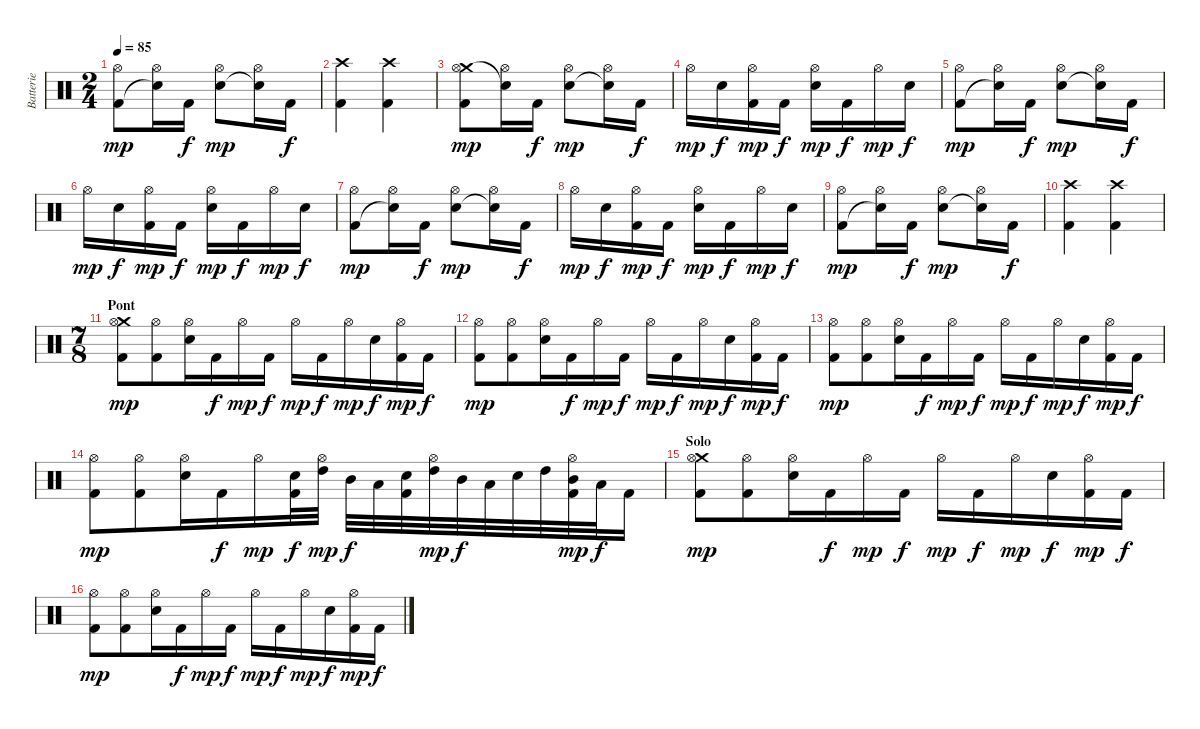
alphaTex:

\track ("Batterie" "Batterie") {instrument percussion}
\staff {score}
\articulation defaults
\ts (2 4)
\tempo 85
\clef neutral
\ks c
("Hi-Hat (open)" "Kick (hit) 2").8{dy mp} ("Hi-Hat (open)" "Snare (hit)"{t}).16 "Kick (hit) 2".16{dy f} ("Electric Snare (hit)" "Hi-Hat (open)").8{dy mp} ("Snare (hit)"{t} "Hi-Hat (open)").16 "Kick (hit) 2".16{dy f} |
("Crash high (hit)" "Kick (hit) 2").4 ("Crash high (hit)" "Kick (hit) 2").4 |
("Crash medium (hit)" "Hi-Hat (open)" "Kick (hit) 2").8{dy mp} ("Hi-Hat (open)" "Snare (hit)"{t}).16 "Kick (hit) 2".16{dy f} ("Electric Snare (hit)" "Hi-Hat (open)").8{dy mp} ("Snare (hit)"{t} "Hi-Hat (open)").16 "Kick (hit) 2".16{dy f} |
"Hi-Hat (open)".16{dy mp} "Electric Snare (hit)".16{dy f} ("Hi-Hat (open)" "Kick (hit) 2").16{dy mp} "Kick (hit) 2".16{dy f} ("Electric Snare (hit)" "Hi-Hat (open)").16{dy mp} "Kick (hit) 2".16{dy f} "Hi-Hat (open)".16{dy mp} "Electric Snare (hit)".16{dy f} |
("Hi-Hat (open)" "Kick (hit) 2").8{dy mp} ("Hi-Hat (open)" "Snare (hit)"{t}).16 "Kick (hit) 2".16{dy f} ("Electric Snare (hit)" "Hi-Hat (open)").8{dy mp} ("Snare (hit)"{t} "Hi-Hat (open)").16 "Kick (hit) 2".16{dy f} |
"Hi-Hat (open)".16{dy mp} "Electric Snare (hit)".16{dy f} ("Hi-Hat (open)" "Kick (hit) 2").16{dy mp} "Kick (hit) 2".16{dy f} ("Electric Snare (hit)" "Hi-Hat (open)").16{dy mp} "Kick (hit) 2".16{dy f} "Hi-Hat (open)".16{dy mp} "Electric Snare (hit)".16{dy f} |
("Hi-Hat (open)" "Kick (hit) 2").8{dy mp} ("Hi-Hat (open)" "Snare (hit)"{t}).16 "Kick (hit) 2".16{dy f} ("Electric Snare (hit)" "Hi-Hat (open)").8{dy mp} ("Snare (hit)"{t} "Hi-Hat (open)").16 "Kick (hit) 2".16{dy f} |
"Hi-Hat (open)".16{dy mp} "Electric Snare (hit)".16{dy f} ("Hi-Hat (open)" "Kick (hit) 2").16{dy mp} "Kick (hit) 2".16{dy f} ("Electric Snare (hit)" "Hi-Hat (open)").16{dy mp} "Kick (hit) 2".16{dy f} "Hi-Hat (open)".16{dy mp} "Electric Snare (hit)".16{dy f} |
("Hi-Hat (open)" "Kick (hit) 2").8{dy mp} ("Hi-Hat (open)" "Snare (hit)"{t}).16 "Kick (hit) 2".16{dy f} ("Electric Snare (hit)" "Hi-Hat (open)").8{dy mp} ("Snare (hit)"{t} "Hi-Hat (open)").16 "Kick (hit) 2".16{dy f} |
("Crash high (hit)" "Kick (hit) 2").4 ("Crash high (hit)" "Kick (hit) 2").4 |
\ts (7 8)
\section ("" "Pont")
("Crash medium (hit)" "Hi-Hat (open)" "Kick (hit) 2").8{dy mp} ("Hi-Hat (open)" "Kick (hit) 2").8 ("Hi-Hat (open)" "Electric Snare (hit)").16 "Kick (hit) 2".16{dy f} "Hi-Hat (open)".16{dy mp} "Kick (hit) 2".16{dy f} "Hi-Hat (open)".16{dy mp} "Kick (hit) 2".16{dy f} "Hi-Hat (open)".16{dy mp} "Electric Snare (hit)".16{dy f} ("Hi-Hat (open)" "Kick (hit) 2").16{dy mp} "Kick (hit) 2".16{dy f} |
("Hi-Hat (open)" "Kick (hit) 2").8{dy mp} ("Hi-Hat (open)" "Kick (hit) 2").8 ("Hi-Hat (open)" "Electric Snare (hit)").16 "Kick (hit) 2".16{dy f} "Hi-Hat (open)".16{dy mp} "Kick (hit) 2".16{dy f} "Hi-Hat (open)".16{dy mp} "Kick (hit) 2".16{dy f} "Hi-Hat (open)".16{dy mp} "Electric Snare (hit)".16{dy f} ("Hi-Hat (open)" "Kick (hit) 2").16{dy mp} "Kick (hit) 2".16{dy f} |
("Hi-Hat (open)" "Kick (hit) 2").8{dy mp} ("Hi-Hat (open)" "Kick (hit) 2").8 ("Hi-Hat (open)" "Electric Snare (hit)").16 "Kick (hit) 2".16{dy f} "Hi-Hat (open)".16{dy mp} "Kick (hit) 2".16{dy f} "Hi-Hat (open)".16{dy mp} "Kick (hit) 2".16{dy f} "Hi-Hat (open)".16{dy mp} "Electric Snare (hit)".16{dy f} ("Hi-Hat (open)" "Kick (hit) 2").16{dy mp} "Kick (hit) 2".16{dy f} |
("Hi-Hat (open)" "Kick (hit) 2").8{dy mp} ("Hi-Hat (open)" "Kick (hit) 2").8 ("Hi-Hat (open)" "Electric Snare (hit)").16 "Kick (hit) 2".16{dy f} "Hi-Hat (open)".16{dy mp} ("Electric Snare (hit)" "Kick (hit) 2").32{dy f} ("Hi-Hat (open)" "High Tom (hit)").32{dy mp} "Mid Tom (hit)".32{dy f} "Low Tom (hit)".32 ("Electric Snare (hit)" "Kick (hit) 2").32 ("Hi-Hat (open)" "High Tom (hit)").32{dy mp} "Mid Tom (hit)".32{dy f} "Low Tom (hit)".32 "Electric Snare (hit)".32 "High Tom (hit)".32 ("Hi-Hat (open)" "Mid Tom (hit)" "Kick (hit) 2").32{dy mp} "Low Tom (hit)".32{dy f} "Kick (hit) 2".16 |
\section ("" "Solo")
("Crash medium (hit)" "Hi-Hat (open)" "Kick (hit) 2").8{dy mp} ("Hi-Hat (open)" "Kick (hit) 2").8 ("Hi-Hat (open)" "Electric Snare (hit)").16 "Kick (hit) 2".16{dy f} "Hi-Hat (open)".16{dy mp} "Kick (hit) 2".16{dy f} "Hi-Hat (open)".16{dy mp} "Kick (hit) 2".16{dy f} "Hi-Hat (open)".16{dy mp} "Electric Snare (hit)".16{dy f} ("Hi-Hat (open)" "Kick (hit) 2").16{dy mp} "Kick (hit) 2".16{dy f} |
("Hi-Hat (open)" "Kick (hit) 2").8{dy mp} ("Hi-Hat (open)" "Kick (hit) 2").8 ("Hi-Hat (open)" "Electric Snare (hit)").16 "Kick (hit) 2".16{dy f} "Hi-Hat (open)".16{dy mp} "Kick (hit) 2".16{dy f} "Hi-Hat (open)".16{dy mp} "Kick (hit) 2".16{dy f} "Hi-Hat (open)".16{dy mp} "Electric Snare (hit)".16{dy f} ("Hi-Hat (open)" "Kick (hit) 2").16{dy mp} "Kick (hit) 2".16{dy f}
